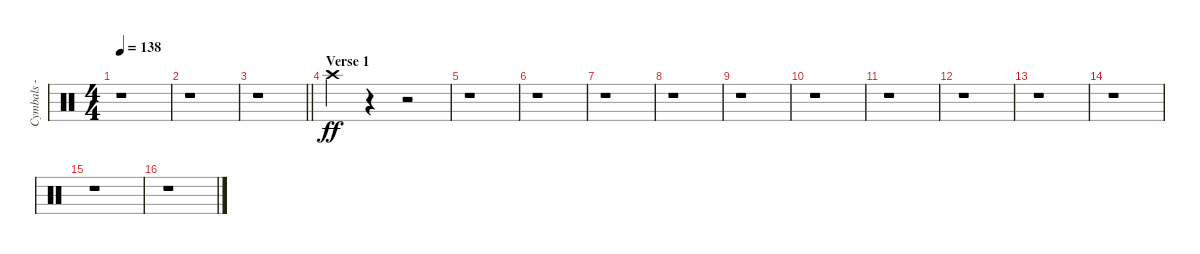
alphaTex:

\track ("Cymbals - crash" "Cymbals - ") {instrument percussion}
\staff {score}
\articulation defaults
\ts (4 4)
\tempo 138
\clef neutral
\ks c
r.1{dy ff} |
r.1 |
\barLineRight lightlight
r.1 |
\section ("" "Verse 1")
"Crash high (hit)".4 r.4 r.2 |
r.1 |
r.1 |
r.1 |
r.1 |
r.1 |
r.1 |
r.1 |
r.1 |
r.1 |
r.1 |
r.1 |
r.1
